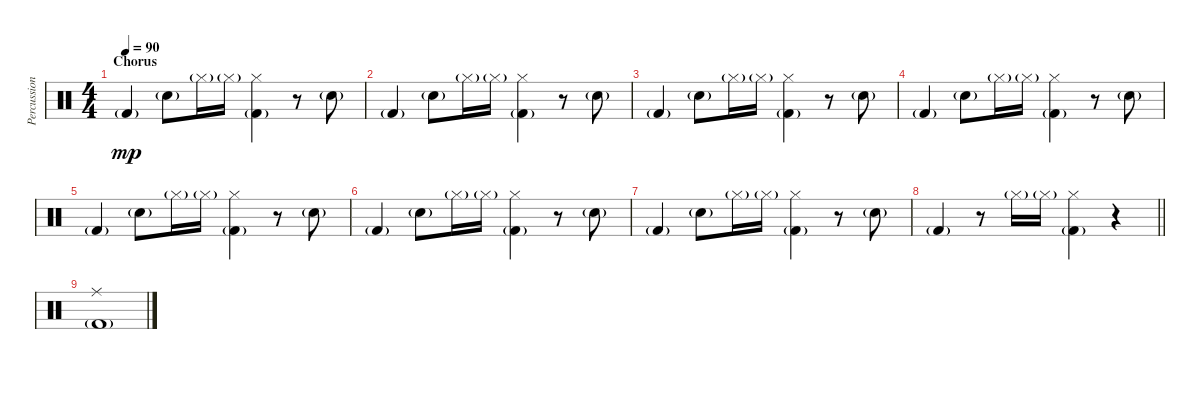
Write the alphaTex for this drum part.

\track ("Percussion" "Percussion") {instrument percussion}
\staff {score}
\articulation defaults
\ts (4 4)
\section ("" "Chorus")
\tempo 90
\clef neutral
\ks c "Kick (hit) 2"{g}.4{dy mp} "Snare (hit) 2"{g}.8 "Hi-Hat (closed)"{g}.16 "Hi-Hat (closed)"{g}.16
("Hi-Hat (closed)" "Kick (hit) 2"{g}).4 r.8 "Hand Clap (hit)"{g}.8 |
"Kick (hit) 2"{g}.4 "Snare (hit) 2"{g}.8 "Hi-Hat (closed)"{g}.16 "Hi-Hat (closed)"{g}.16 ("Hi-Hat (closed)" "Kick (hit) 2"{g}).4 r.8 "Hand Clap (hit)"{g}.8 |
"Kick (hit) 2"{g}.4 "Snare (hit) 2"{g}.8 "Hi-Hat (closed)"{g}.16 "Hi-Hat (closed)"{g}.16 ("Hi-Hat (closed)" "Kick (hit) 2"{g}).4 r.8 "Hand Clap (hit)"{g}.8 |
"Kick (hit) 2"{g}.4 "Snare (hit) 2"{g}.8 "Hi-Hat (closed)"{g}.16 "Hi-Hat (closed)"{g}.16 ("Hi-Hat (closed)" "Kick (hit) 2"{g}).4 r.8 "Hand Clap (hit)"{g}.8 |
"Kick (hit) 2"{g}.4 "Snare (hit) 2"{g}.8 "Hi-Hat (closed)"{g}.16 "Hi-Hat (closed)"{g}.16 ("Hi-Hat (closed)" "Kick (hit) 2"{g}).4 r.8 "Hand Clap (hit)"{g}.8 |
"Kick (hit) 2"{g}.4 "Snare (hit) 2"{g}.8 "Hi-Hat (closed)"{g}.16 "Hi-Hat (closed)"{g}.16 ("Hi-Hat (closed)" "Kick (hit) 2"{g}).4 r.8 "Hand Clap (hit)"{g}.8 |
"Kick (hit) 2"{g}.4 "Snare (hit) 2"{g}.8 "Hi-Hat (closed)"{g}.16 "Hi-Hat (closed)"{g}.16 ("Hi-Hat (closed)" "Kick (hit) 2"{g}).4 r.8 "Hand Clap (hit)"{g}.8 |
\barLineRight lightlight "Kick (hit) 2"{g}.4
r.8 "Hi-Hat (closed)"{g}.16 "Hi-Hat (closed)"{g}.16 ("Hi-Hat (closed)" "Kick (hit) 2"{g}).4 r.4 |
("Ride (middle)" "Kick (hit) 2"{g}).1
